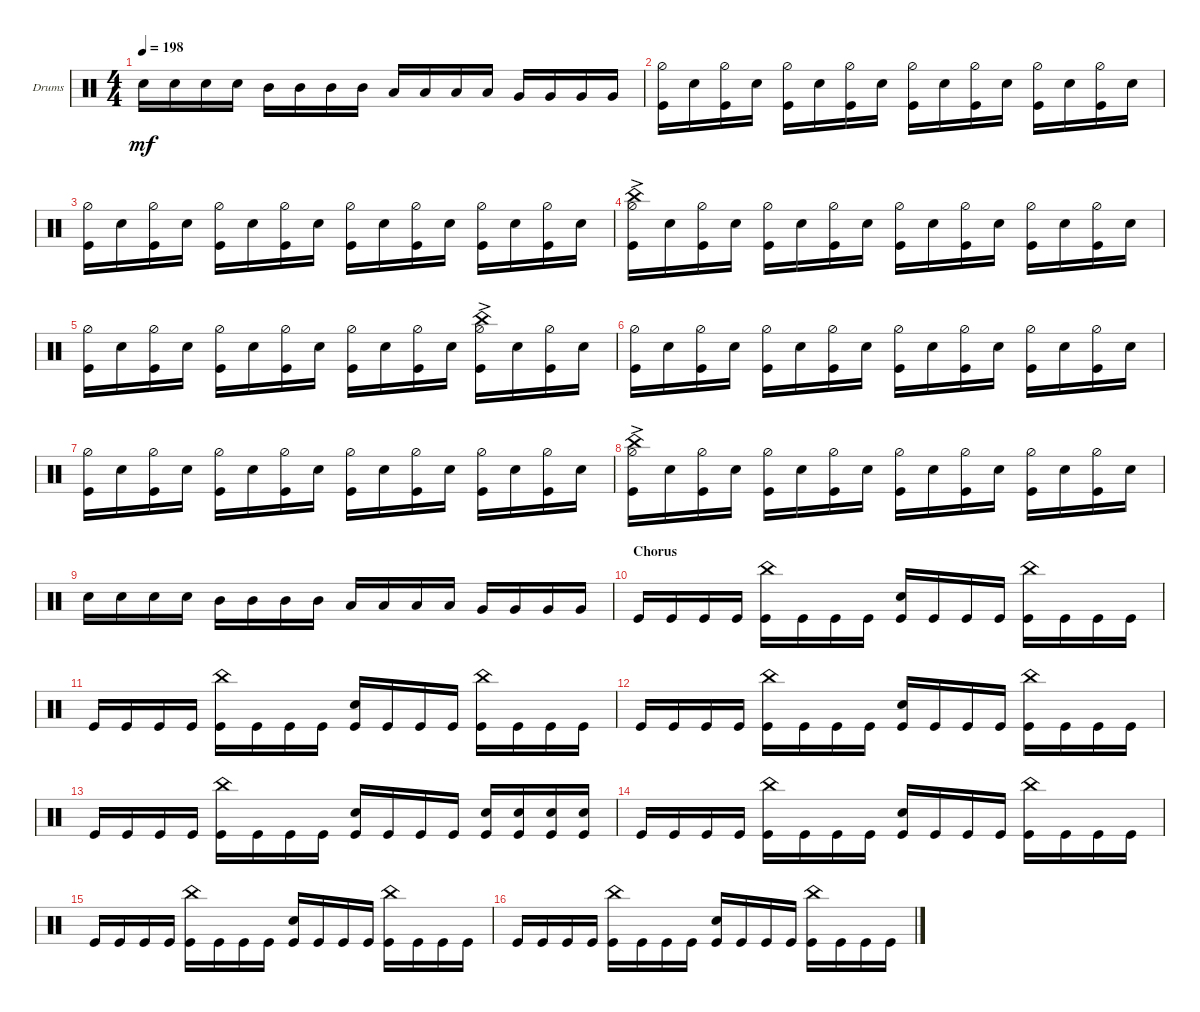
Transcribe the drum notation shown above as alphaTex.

\bracketExtendMode groupsimilarinstruments
\firstSystemTrackNameOrientation horizontal
\otherSystemsTrackNameOrientation horizontal
\track ("Drumkit" "Drums") {instrument percussion}
\staff {score}
\articulation defaults
\ts (4 4)
\tempo 198
\clef neutral
\ks c "Snare (hit) 2".16{dy mf} "Snare (hit) 2".16 "Snare (hit) 2".16 "Snare (hit) 2".16 "Mid Tom (hit)".16 "Mid Tom (hit)".16 "Mid Tom (hit)".16 "Mid Tom (hit)".16 "Low Tom (hit)".16 "Low Tom (hit)".16 "Low Tom (hit)".16 "Low Tom (hit)".16 "Very Low Tom (hit)".16 "Very Low Tom (hit)".16 "Very Low Tom (hit)".16 "Very Low Tom (hit)".16
|
("Hi-Hat (half)" "Kick (hit)").16 "Snare (hit) 2".16 ("Hi-Hat (half)" "Kick (hit)").16 "Snare (hit) 2".16 ("Hi-Hat (half)" "Kick (hit)").16 "Snare (hit) 2".16 ("Hi-Hat (half)" "Kick (hit)").16 "Snare (hit) 2".16 ("Hi-Hat (half)" "Kick (hit)").16 "Snare (hit) 2".16 ("Hi-Hat (half)" "Kick (hit)").16 "Snare (hit) 2".16 ("Hi-Hat (half)" "Kick (hit)").16 "Snare (hit) 2".16 ("Hi-Hat (half)" "Kick (hit)").16 "Snare (hit) 2".16 |
("Hi-Hat (half)" "Kick (hit)").16 "Snare (hit) 2".16 ("Hi-Hat (half)" "Kick (hit)").16 "Snare (hit) 2".16 ("Hi-Hat (half)" "Kick (hit)").16 "Snare (hit) 2".16 ("Hi-Hat (half)" "Kick (hit)").16 "Snare (hit) 2".16 ("Hi-Hat (half)" "Kick (hit)").16 "Snare (hit) 2".16 ("Hi-Hat (half)" "Kick (hit)").16 "Snare (hit) 2".16 ("Hi-Hat (half)" "Kick (hit)").16 "Snare (hit) 2".16 ("Hi-Hat (half)" "Kick (hit)").16 "Snare (hit) 2".16 |
("Hi-Hat (half)" "Kick (hit)" "China (hit)"{ac}).16 "Snare (hit) 2".16 ("Hi-Hat (half)" "Kick (hit)").16 "Snare (hit) 2".16 ("Hi-Hat (half)" "Kick (hit)").16 "Snare (hit) 2".16 ("Hi-Hat (half)" "Kick (hit)").16 "Snare (hit) 2".16 ("Hi-Hat (half)" "Kick (hit)").16 "Snare (hit) 2".16 ("Hi-Hat (half)" "Kick (hit)").16 "Snare (hit) 2".16 ("Hi-Hat (half)" "Kick (hit)").16 "Snare (hit) 2".16 ("Hi-Hat (half)" "Kick (hit)").16 "Snare (hit) 2".16 |
("Hi-Hat (half)" "Kick (hit)").16 "Snare (hit) 2".16 ("Hi-Hat (half)" "Kick (hit)").16 "Snare (hit) 2".16 ("Hi-Hat (half)" "Kick (hit)").16 "Snare (hit) 2".16 ("Hi-Hat (half)" "Kick (hit)").16 "Snare (hit) 2".16 ("Hi-Hat (half)" "Kick (hit)").16 "Snare (hit) 2".16 ("Hi-Hat (half)" "Kick (hit)").16 "Snare (hit) 2".16 ("Hi-Hat (half)" "Kick (hit)" "China (hit)"{ac}).16 "Snare (hit) 2".16 ("Hi-Hat (half)" "Kick (hit)").16 "Snare (hit) 2".16 |
("Hi-Hat (half)" "Kick (hit)").16 "Snare (hit) 2".16 ("Hi-Hat (half)" "Kick (hit)").16 "Snare (hit) 2".16 ("Hi-Hat (half)" "Kick (hit)").16 "Snare (hit) 2".16 ("Hi-Hat (half)" "Kick (hit)").16 "Snare (hit) 2".16 ("Hi-Hat (half)" "Kick (hit)").16 "Snare (hit) 2".16 ("Hi-Hat (half)" "Kick (hit)").16 "Snare (hit) 2".16 ("Hi-Hat (half)" "Kick (hit)").16 "Snare (hit) 2".16 ("Hi-Hat (half)" "Kick (hit)").16 "Snare (hit) 2".16 |
("Hi-Hat (half)" "Kick (hit)").16 "Snare (hit) 2".16 ("Hi-Hat (half)" "Kick (hit)").16 "Snare (hit) 2".16 ("Hi-Hat (half)" "Kick (hit)").16 "Snare (hit) 2".16 ("Hi-Hat (half)" "Kick (hit)").16 "Snare (hit) 2".16 ("Hi-Hat (half)" "Kick (hit)").16 "Snare (hit) 2".16 ("Hi-Hat (half)" "Kick (hit)").16 "Snare (hit) 2".16 ("Hi-Hat (half)" "Kick (hit)").16 "Snare (hit) 2".16 ("Hi-Hat (half)" "Kick (hit)").16 "Snare (hit) 2".16 |
("Hi-Hat (half)" "Kick (hit)" "China (hit)"{ac}).16 "Snare (hit) 2".16 ("Hi-Hat (half)" "Kick (hit)").16 "Snare (hit) 2".16 ("Hi-Hat (half)" "Kick (hit)").16 "Snare (hit) 2".16 ("Hi-Hat (half)" "Kick (hit)").16 "Snare (hit) 2".16 ("Hi-Hat (half)" "Kick (hit)").16 "Snare (hit) 2".16 ("Hi-Hat (half)" "Kick (hit)").16 "Snare (hit) 2".16 ("Hi-Hat (half)" "Kick (hit)").16 "Snare (hit) 2".16 ("Hi-Hat (half)" "Kick (hit)").16 "Snare (hit) 2".16 |
"Snare (hit) 2".16 "Snare (hit) 2".16 "Snare (hit) 2".16 "Snare (hit) 2".16 "Mid Tom (hit)".16 "Mid Tom (hit)".16 "Mid Tom (hit)".16 "Mid Tom (hit)".16 "Low Tom (hit)".16 "Low Tom (hit)".16 "Low Tom (hit)".16 "Low Tom (hit)".16 "Very Low Tom (hit)".16 "Very Low Tom (hit)".16 "Very Low Tom (hit)".16 "Very Low Tom (hit)".16 |
\section ("" "Chorus")
"Kick (hit)".16 "Kick (hit)".16 "Kick (hit)".16 "Kick (hit)".16 ("Kick (hit)" "China (hit)").16 "Kick (hit)".16 "Kick (hit)".16 "Kick (hit)".16 ("Kick (hit)" "Snare (hit) 2").16 "Kick (hit)".16 "Kick (hit)".16 "Kick (hit)".16 ("Kick (hit)" "China (hit)").16 "Kick (hit)".16 "Kick (hit)".16 "Kick (hit)".16 |
"Kick (hit)".16 "Kick (hit)".16 "Kick (hit)".16 "Kick (hit)".16 ("Kick (hit)" "China (hit)").16 "Kick (hit)".16 "Kick (hit)".16 "Kick (hit)".16 ("Kick (hit)" "Snare (hit) 2").16 "Kick (hit)".16 "Kick (hit)".16 "Kick (hit)".16 ("Kick (hit)" "China (hit)").16 "Kick (hit)".16 "Kick (hit)".16 "Kick (hit)".16 |
"Kick (hit)".16 "Kick (hit)".16 "Kick (hit)".16 "Kick (hit)".16 ("Kick (hit)" "China (hit)").16 "Kick (hit)".16 "Kick (hit)".16 "Kick (hit)".16 ("Kick (hit)" "Snare (hit) 2").16 "Kick (hit)".16 "Kick (hit)".16 "Kick (hit)".16 ("Kick (hit)" "China (hit)").16 "Kick (hit)".16 "Kick (hit)".16 "Kick (hit)".16 |
"Kick (hit)".16 "Kick (hit)".16 "Kick (hit)".16 "Kick (hit)".16 ("Kick (hit)" "China (hit)").16 "Kick (hit)".16 "Kick (hit)".16 "Kick (hit)".16 ("Kick (hit)" "Snare (hit) 2").16 "Kick (hit)".16 "Kick (hit)".16 "Kick (hit)".16 ("Kick (hit)" "Snare (hit) 2").16 ("Kick (hit)" "Snare (hit) 2").16 ("Kick (hit)" "Snare (hit) 2").16 ("Kick (hit)" "Snare (hit) 2").16 |
"Kick (hit)".16 "Kick (hit)".16 "Kick (hit)".16 "Kick (hit)".16 ("Kick (hit)" "China (hit)").16 "Kick (hit)".16 "Kick (hit)".16 "Kick (hit)".16 ("Kick (hit)" "Snare (hit) 2").16 "Kick (hit)".16 "Kick (hit)".16 "Kick (hit)".16 ("Kick (hit)" "China (hit)").16 "Kick (hit)".16 "Kick (hit)".16 "Kick (hit)".16 |
"Kick (hit)".16 "Kick (hit)".16 "Kick (hit)".16 "Kick (hit)".16 ("Kick (hit)" "China (hit)").16 "Kick (hit)".16 "Kick (hit)".16 "Kick (hit)".16 ("Kick (hit)" "Snare (hit) 2").16 "Kick (hit)".16 "Kick (hit)".16 "Kick (hit)".16 ("Kick (hit)" "China (hit)").16 "Kick (hit)".16 "Kick (hit)".16 "Kick (hit)".16 |
"Kick (hit)".16 "Kick (hit)".16 "Kick (hit)".16 "Kick (hit)".16 ("Kick (hit)" "China (hit)").16 "Kick (hit)".16 "Kick (hit)".16 "Kick (hit)".16 ("Kick (hit)" "Snare (hit) 2").16 "Kick (hit)".16 "Kick (hit)".16 "Kick (hit)".16 ("Kick (hit)" "China (hit)").16 "Kick (hit)".16 "Kick (hit)".16 "Kick (hit)".16
